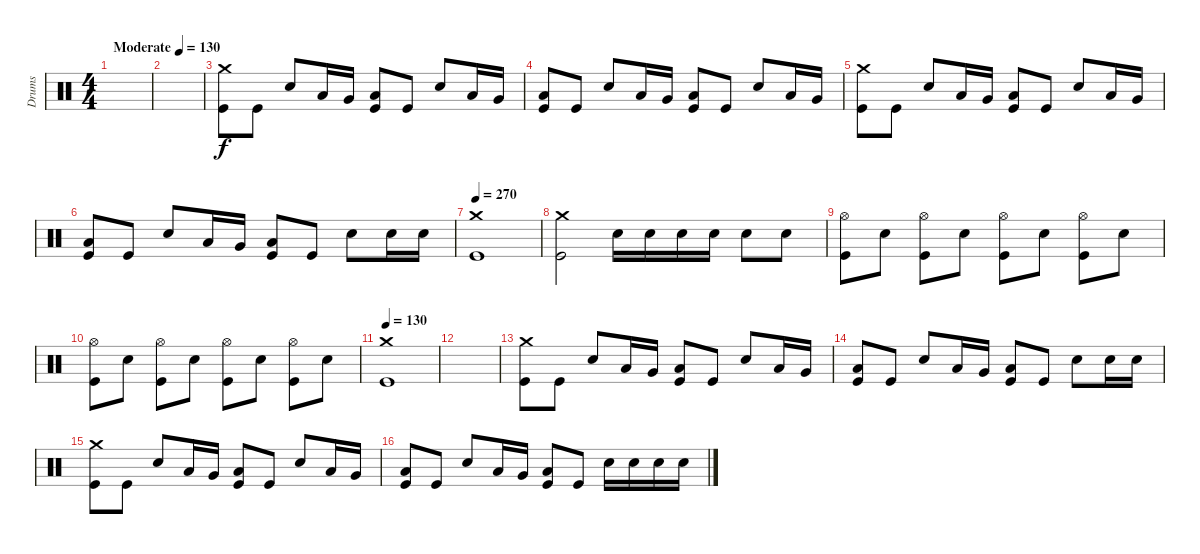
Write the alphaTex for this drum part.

\track ("Drums" "Drums") {instrument percussion}
\staff {score}
\articulation defaults
\ts (4 4)
\tempo (130 "Moderate")
\clef neutral
\ks c
|
|
("Crash medium (hit)" "Kick (hit)").8 "Kick (hit)".8 "Electric Snare (hit)".8 "Low Tom (hit)".16 "Very Low Tom (hit)".16 ("Low Floor Tom (hit)" "Kick (hit)").8 "Kick (hit)".8 "Electric Snare (hit)".8 "Low Tom (hit)".16 "Very Low Tom (hit)".16 |
("Low Floor Tom (hit)" "Kick (hit)").8 "Kick (hit)".8 "Electric Snare (hit)".8 "Low Tom (hit)".16 "Very Low Tom (hit)".16 ("Low Floor Tom (hit)" "Kick (hit)").8 "Kick (hit)".8 "Electric Snare (hit)".8 "Low Tom (hit)".16 "Very Low Tom (hit)".16 |
("Crash medium (hit)" "Kick (hit)").8 "Kick (hit)".8 "Electric Snare (hit)".8 "Low Tom (hit)".16 "Very Low Tom (hit)".16 ("Low Floor Tom (hit)" "Kick (hit)").8 "Kick (hit)".8 "Electric Snare (hit)".8 "Low Tom (hit)".16 "Very Low Tom (hit)".16 |
("Low Floor Tom (hit)" "Kick (hit)").8 "Kick (hit)".8 "Electric Snare (hit)".8 "Low Tom (hit)".16 "Very Low Tom (hit)".16 ("Low Floor Tom (hit)" "Kick (hit)").8 "Kick (hit)".8 "Electric Snare (hit)".8 "Electric Snare (hit)".16 "Electric Snare (hit)".16 |
\tempo 270
("Crash medium (hit)" "Kick (hit)").1 |
("Crash medium (hit)" "Kick (hit)").2 "Electric Snare (hit)".16 "Electric Snare (hit)".16 "Electric Snare (hit)".16 "Electric Snare (hit)".16 "Electric Snare (hit)".8 "Electric Snare (hit)".8 |
("Hi-Hat (open)" "Kick (hit)").8 "Electric Snare (hit)".8 ("Hi-Hat (open)" "Kick (hit)").8 "Electric Snare (hit)".8 ("Hi-Hat (open)" "Kick (hit)").8 "Electric Snare (hit)".8 ("Hi-Hat (open)" "Kick (hit)").8 "Electric Snare (hit)".8 |
("Hi-Hat (open)" "Kick (hit)").8 "Electric Snare (hit)".8 ("Hi-Hat (open)" "Kick (hit)").8 "Electric Snare (hit)".8 ("Hi-Hat (open)" "Kick (hit)").8 "Electric Snare (hit)".8 ("Hi-Hat (open)" "Kick (hit)").8 "Electric Snare (hit)".8 |
\tempo 130
("Crash medium (hit)" "Kick (hit)").1 |
|
("Crash medium (hit)" "Kick (hit)").8 "Kick (hit)".8 "Electric Snare (hit)".8 "Low Tom (hit)".16 "Very Low Tom (hit)".16 ("Low Floor Tom (hit)" "Kick (hit)").8 "Kick (hit)".8 "Electric Snare (hit)".8 "Low Tom (hit)".16 "Very Low Tom (hit)".16 |
("Low Floor Tom (hit)" "Kick (hit)").8 "Kick (hit)".8 "Electric Snare (hit)".8 "Low Tom (hit)".16 "Very Low Tom (hit)".16 ("Low Floor Tom (hit)" "Kick (hit)").8 "Kick (hit)".8 "Electric Snare (hit)".8 "Electric Snare (hit)".16 "Electric Snare (hit)".16 |
("Crash medium (hit)" "Kick (hit)").8 "Kick (hit)".8 "Electric Snare (hit)".8 "Low Tom (hit)".16 "Very Low Tom (hit)".16 ("Low Floor Tom (hit)" "Kick (hit)").8 "Kick (hit)".8 "Electric Snare (hit)".8 "Low Tom (hit)".16 "Very Low Tom (hit)".16 |
("Low Floor Tom (hit)" "Kick (hit)").8 "Kick (hit)".8 "Electric Snare (hit)".8 "Low Tom (hit)".16 "Very Low Tom (hit)".16 ("Low Floor Tom (hit)" "Kick (hit)").8 "Kick (hit)".8 "Electric Snare (hit)".16 "Electric Snare (hit)".16 "Electric Snare (hit)".16 "Electric Snare (hit)".16
